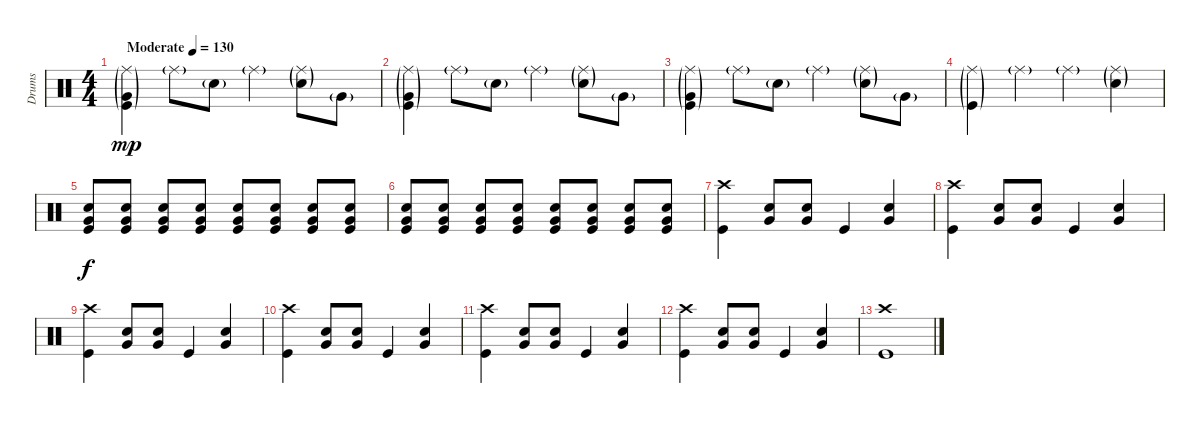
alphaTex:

\track ("Drums" "Drums") {instrument percussion}
\staff {score}
\articulation defaults
\ts (4 4)
\tempo (130 "Moderate")
\clef neutral
\ks c
("Ride (middle)"{g} "Very Low Tom (hit)"{g} "Kick (hit)"{g}).4{dy mp} "Ride (middle)"{g}.8 "Snare (hit) 2"{g}.8 "Ride (middle)"{g}.4 ("Ride (middle)"{g} "Snare (hit) 2"{g}).8 "Very Low Tom (hit)"{g}.8 |
("Ride (middle)"{g} "Very Low Tom (hit)"{g} "Kick (hit)"{g}).4 "Ride (middle)"{g}.8 "Snare (hit) 2"{g}.8 "Ride (middle)"{g}.4 ("Ride (middle)"{g} "Snare (hit) 2"{g}).8 "Very Low Tom (hit)"{g}.8 |
("Ride (middle)"{g} "Very Low Tom (hit)"{g} "Kick (hit)"{g}).4 "Ride (middle)"{g}.8 "Snare (hit) 2"{g}.8 "Ride (middle)"{g}.4 ("Ride (middle)"{g} "Snare (hit) 2"{g}).8 "Very Low Tom (hit)"{g}.8 |
("Ride (middle)"{g} "Kick (hit)"{g}).4 "Ride (middle)"{g}.4 "Ride (middle)"{g}.4 ("Ride (middle)"{g} "Snare (hit) 2"{g}).4 |
("Snare (hit) 2" "Very Low Tom (hit)" "Kick (hit)").8{dy f} ("Snare (hit) 2" "Very Low Tom (hit)" "Kick (hit)").8 ("Snare (hit) 2" "Very Low Tom (hit)" "Kick (hit)").8 ("Snare (hit) 2" "Very Low Tom (hit)" "Kick (hit)").8 ("Snare (hit) 2" "Very Low Tom (hit)" "Kick (hit)").8 ("Snare (hit) 2" "Very Low Tom (hit)" "Kick (hit)").8 ("Snare (hit) 2" "Very Low Tom (hit)" "Kick (hit)").8 ("Snare (hit) 2" "Very Low Tom (hit)" "Kick (hit)").8 |
("Snare (hit) 2" "Very Low Tom (hit)" "Kick (hit)").8 ("Snare (hit) 2" "Very Low Tom (hit)" "Kick (hit)").8 ("Snare (hit) 2" "Very Low Tom (hit)" "Kick (hit)").8 ("Snare (hit) 2" "Very Low Tom (hit)" "Kick (hit)").8 ("Snare (hit) 2" "Very Low Tom (hit)" "Kick (hit)").8 ("Snare (hit) 2" "Very Low Tom (hit)" "Kick (hit)").8 ("Snare (hit) 2" "Very Low Tom (hit)" "Kick (hit)").8 ("Snare (hit) 2" "Very Low Tom (hit)" "Kick (hit)").8 |
("Crash high (hit)" "Kick (hit)").4 ("Snare (hit) 2" "Very Low Tom (hit)").8 ("Snare (hit) 2" "Very Low Tom (hit)").8 "Kick (hit)".4 ("Snare (hit) 2" "Very Low Tom (hit)").4 |
("Crash high (hit)" "Kick (hit)").4 ("Snare (hit) 2" "Very Low Tom (hit)").8 ("Snare (hit) 2" "Very Low Tom (hit)").8 "Kick (hit)".4 ("Snare (hit) 2" "Very Low Tom (hit)").4 |
("Crash high (hit)" "Kick (hit)").4 ("Snare (hit) 2" "Very Low Tom (hit)").8 ("Snare (hit) 2" "Very Low Tom (hit)").8 "Kick (hit)".4 ("Snare (hit) 2" "Very Low Tom (hit)").4 |
("Crash high (hit)" "Kick (hit)").4 ("Snare (hit) 2" "Very Low Tom (hit)").8 ("Snare (hit) 2" "Very Low Tom (hit)").8 "Kick (hit)".4 ("Snare (hit) 2" "Very Low Tom (hit)").4 |
("Crash high (hit)" "Kick (hit)").4 ("Snare (hit) 2" "Very Low Tom (hit)").8 ("Snare (hit) 2" "Very Low Tom (hit)").8 "Kick (hit)".4 ("Snare (hit) 2" "Very Low Tom (hit)").4 |
("Crash high (hit)" "Kick (hit)").4 ("Snare (hit) 2" "Very Low Tom (hit)").8 ("Snare (hit) 2" "Very Low Tom (hit)").8 "Kick (hit)".4 ("Snare (hit) 2" "Very Low Tom (hit)").4 |
("Crash high (hit)" "Kick (hit)").1
